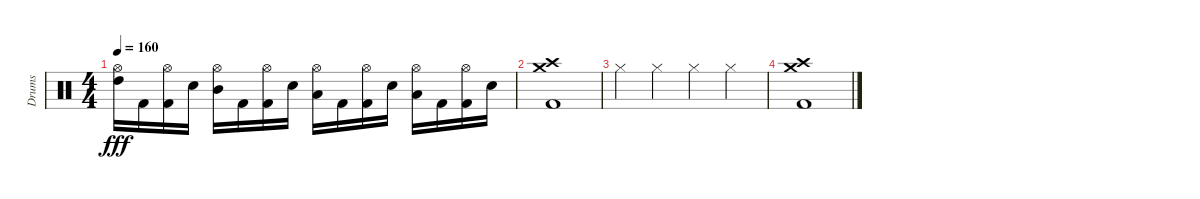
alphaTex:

\track ("Drums" "Drums") {instrument percussion}
\staff {score}
\articulation defaults
\ts (4 4)
\tempo 160
\clef neutral
\ks c
("Hi-Hat (open)" "High Tom (hit)").16{dy fff} "Kick (hit) 2".16 ("Hi-Hat (open)" "Kick (hit) 2").16 "Electric Snare (hit)".16 ("Hi-Hat (open)" "Mid Tom (hit)").16 "Kick (hit) 2".16 ("Hi-Hat (open)" "Kick (hit) 2").16 "Electric Snare (hit)".16 ("Hi-Hat (open)" "Low Tom (hit)").16 "Kick (hit) 2".16 ("Hi-Hat (open)" "Kick (hit) 2").16 "Electric Snare (hit)".16 ("Hi-Hat (open)" "Low Tom (hit)").16 "Kick (hit) 2".16 ("Hi-Hat (open)" "Kick (hit) 2").16 "Electric Snare (hit)".16 |
("Crash high (hit)" "Crash medium (hit)" "Kick (hit) 2").1 |
"Hi-Hat (closed)".4 "Hi-Hat (closed)".4 "Hi-Hat (closed)".4 "Hi-Hat (closed)".4 |
("Crash high (hit)" "Crash medium (hit)" "Kick (hit) 2").1
